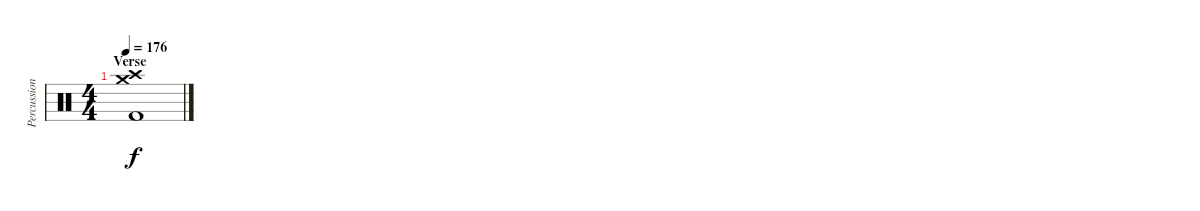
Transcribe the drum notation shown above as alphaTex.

\track ("Percussion" "Percussion") {instrument percussion}
\staff {score}
\articulation defaults
\ts (4 4)
\section ("" "Verse")
\tempo 176
\clef neutral
\ks c
("Crash high (hit)" "Crash medium (hit)" "Kick (hit) 2").1{dy f}
